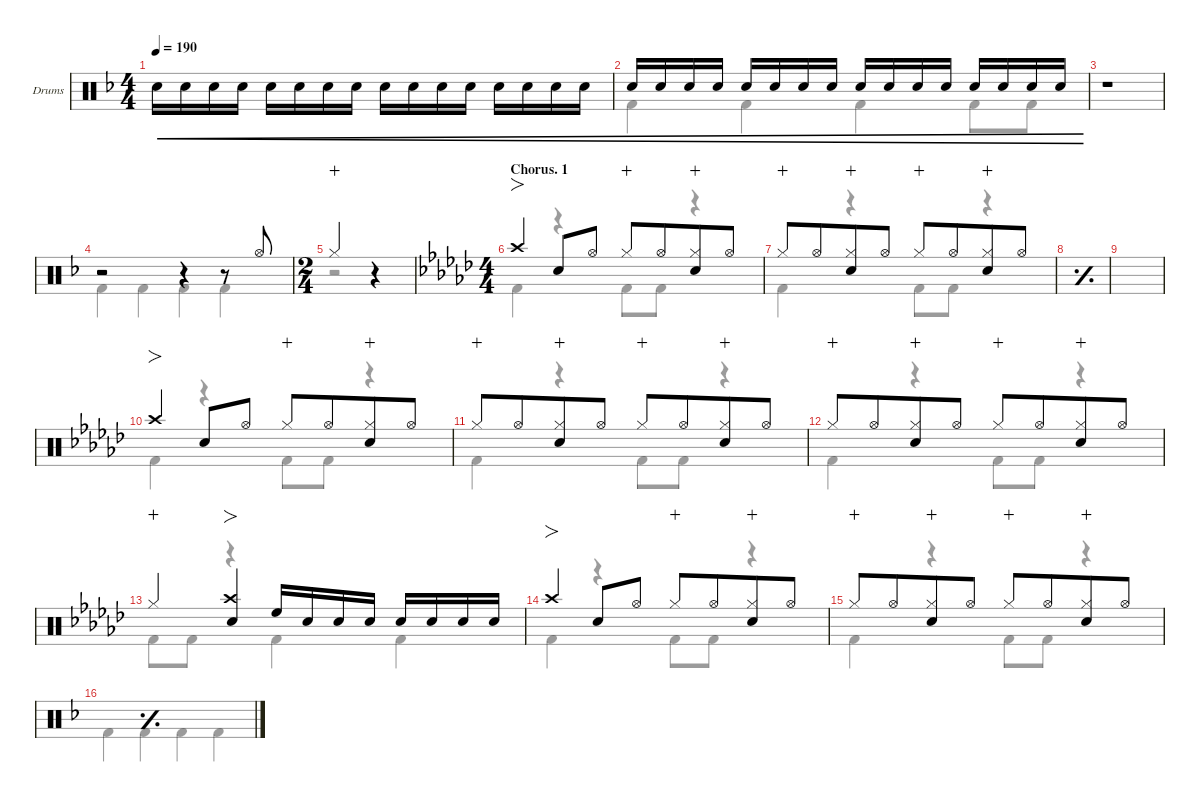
\defaultSystemsLayout 4
\hideDynamics
\bracketExtendMode nobrackets
\firstSystemTrackNameOrientation horizontal
\track ("Drums" "Drums") {defaultSystemsLayout 4 instrument percussion}
\staff {score}
\articulation defaults
\voice
\ts (4 4)
\tempo 190
\clef neutral
\ks f "Snare (hit) 2"{acc forcenatural}.16{cre dy mf} "Snare (hit) 2"{acc forcenatural}.16{cre dy mp} "Snare (hit) 2"{acc forcenatural}.16{cre dy mf} "Snare (hit) 2"{acc forcenatural}.16{cre dy mp beam split} "Snare (hit) 2"{acc forcenatural}.16{cre dy mf} "Snare (hit) 2"{acc forcenatural}.16{cre dy mp} "Snare (hit) 2"{acc forcenatural}.16{cre dy mf} "Snare (hit) 2"{acc forcenatural}.16{cre dy mp} "Snare (hit) 2"{acc forcenatural}.16{cre dy mf} "Snare (hit) 2"{acc forcenatural}.16{cre dy mp} "Snare (hit) 2"{acc forcenatural}.16{cre dy mf} "Snare (hit) 2"{acc forcenatural}.16{cre dy mp beam split} "Snare (hit) 2"{acc forcenatural}.16{cre dy mf} "Snare (hit) 2"{acc forcenatural}.16{cre dy mp} "Snare (hit) 2"{acc forcenatural}.16{cre dy mf} "Snare (hit) 2"{acc forcenatural}.16{cre dy mp}
|
"Snare (hit) 2"{acc forcenatural}.16{cre dy f} "Snare (hit) 2"{acc forcenatural}.16{cre dy mf} "Snare (hit) 2"{acc forcenatural}.16{cre dy f} "Snare (hit) 2"{acc forcenatural}.16{cre dy mf beam split} "Snare (hit) 2"{acc forcenatural}.16{cre dy f} "Snare (hit) 2"{acc forcenatural}.16{cre dy mf} "Snare (hit) 2"{acc forcenatural}.16{cre dy f} "Snare (hit) 2"{acc forcenatural}.16{cre dy mf} "Snare (hit) 2"{acc forcenatural}.16{cre dy f} "Snare (hit) 2"{acc forcenatural}.16{cre dy mf} "Snare (hit) 2"{acc forcenatural}.16{cre dy f} "Snare (hit) 2"{acc forcenatural}.16{cre dy mf beam split} "Snare (hit) 2"{acc forcenatural}.16{cre dy f} "Snare (hit) 2"{acc forcenatural}.16{cre dy mf} "Snare (hit) 2"{acc forcenatural}.16{cre dy f} "Snare (hit) 2"{acc forcenatural}.16{cre dy mf} |
r.1 |
r.2 r.4 r.8 "Hi-Hat (open)"{acc forcenatural}.8{dy f} |
\ts (2 4)
\beaming (8 2 2)
"Hi-Hat (closed)"{acc forcenatural}.4{dy mp wahc} r.4 |
\ts (4 4)
\beaming (8 4 4)
\section ("" "Chorus. 1")
\ks gb "Crash high (hit)"{acc forcenatural}.4{fo dy f} "Snare (hit) 2"{acc forcenatural}.8 "Hi-Hat (open)"{acc forcenatural}.8 "Hi-Hat (closed)"{acc forcenatural}.8{wahc} "Hi-Hat (open)"{acc forcenatural}.8
("Hi-Hat (closed)"{acc forcenatural} "Snare (hit) 2"{acc forcenatural}).8{wahc} "Hi-Hat (open)"{acc forcenatural}.8 |
"Hi-Hat (closed)"{acc forcenatural}.8{wahc} "Hi-Hat (open)"{acc forcenatural}.8 ("Hi-Hat (closed)"{acc forcenatural} "Snare (hit) 2"{acc forcenatural}).8{wahc} "Hi-Hat (open)"{acc forcenatural}.8 "Hi-Hat (closed)"{acc forcenatural}.8{wahc} "Hi-Hat (open)"{acc forcenatural}.8 ("Hi-Hat (closed)"{acc forcenatural} "Snare (hit) 2"{acc forcenatural}).8{wahc} "Hi-Hat (open)"{acc forcenatural}.8 |
\simile simple
|
|
\simile none "Crash high (hit)"{acc forcenatural}.4{fo} "Snare (hit) 2"{acc forcenatural}.8 "Hi-Hat (open)"{acc forcenatural}.8 "Hi-Hat (closed)"{acc forcenatural}.8{wahc} "Hi-Hat (open)"{acc forcenatural}.8
("Hi-Hat (closed)"{acc forcenatural} "Snare (hit) 2"{acc forcenatural}).8{wahc} "Hi-Hat (open)"{acc forcenatural}.8 |
"Hi-Hat (closed)"{acc forcenatural}.8{wahc} "Hi-Hat (open)"{acc forcenatural}.8 ("Hi-Hat (closed)"{acc forcenatural} "Snare (hit) 2"{acc forcenatural}).8{wahc} "Hi-Hat (open)"{acc forcenatural}.8 "Hi-Hat (closed)"{acc forcenatural}.8{wahc} "Hi-Hat (open)"{acc forcenatural}.8 ("Hi-Hat (closed)"{acc forcenatural} "Snare (hit) 2"{acc forcenatural}).8{wahc} "Hi-Hat (open)"{acc forcenatural}.8 |
"Hi-Hat (closed)"{acc forcenatural}.8{wahc} "Hi-Hat (open)"{acc forcenatural}.8 ("Hi-Hat (closed)"{acc forcenatural} "Snare (hit) 2"{acc forcenatural}).8{wahc} "Hi-Hat (open)"{acc forcenatural}.8 "Hi-Hat (closed)"{acc forcenatural}.8{wahc} "Hi-Hat (open)"{acc forcenatural}.8 ("Hi-Hat (closed)"{acc forcenatural} "Snare (hit) 2"{acc forcenatural}).8{wahc} "Hi-Hat (open)"{acc forcenatural}.8 |
"Hi-Hat (closed)"{acc forcenatural}.4{wahc} ("Crash high (hit)"{acc forcenatural} "Snare (hit) 2"{acc forcenatural}).4{fo} "High Floor Tom (hit)"{acc forcenatural}.16 "Snare (hit) 2"{acc forcenatural}.16{dy mf} "Snare (hit) 2"{acc forcenatural}.16{dy f} "Snare (hit) 2"{acc forcenatural}.16{dy mf beam split} "Snare (hit) 2"{acc forcenatural}.16{dy f} "Snare (hit) 2"{acc forcenatural}.16{dy mf} "Snare (hit) 2"{acc forcenatural}.16{dy f} "Snare (hit) 2"{acc forcenatural}.16{dy mf} |
"Crash high (hit)"{acc forcenatural}.4{fo dy f} "Snare (hit) 2"{acc forcenatural}.8 "Hi-Hat (open)"{acc forcenatural}.8 "Hi-Hat (closed)"{acc forcenatural}.8{wahc} "Hi-Hat (open)"{acc forcenatural}.8 ("Hi-Hat (closed)"{acc forcenatural} "Snare (hit) 2"{acc forcenatural}).8{wahc} "Hi-Hat (open)"{acc forcenatural}.8 |
"Hi-Hat (closed)"{acc forcenatural}.8{wahc} "Hi-Hat (open)"{acc forcenatural}.8 ("Hi-Hat (closed)"{acc forcenatural} "Snare (hit) 2"{acc forcenatural}).8{wahc} "Hi-Hat (open)"{acc forcenatural}.8 "Hi-Hat (closed)"{acc forcenatural}.8{wahc} "Hi-Hat (open)"{acc forcenatural}.8 ("Hi-Hat (closed)"{acc forcenatural} "Snare (hit) 2"{acc forcenatural}).8{wahc} "Hi-Hat (open)"{acc forcenatural}.8 |
\simile simple
\voice
\clef neutral
\ottava regular
\simile none
\ks f "Kick (hit) 2"{acc forcenatural}.4{dy f} "Kick (hit) 2"{acc forcenatural}.4 "Kick (hit) 2"{acc forcenatural}.4 "Kick (hit) 2"{acc forcenatural}.4
|
"Kick (hit) 2"{acc forcenatural}.4 "Kick (hit) 2"{acc forcenatural}.4 "Kick (hit) 2"{acc forcenatural}.4 "Kick (hit) 2"{acc forcenatural}.8 "Kick (hit) 2"{acc forcenatural}.8 |
r.1 |
"Kick (hit) 2"{acc forcenatural}.4 "Kick (hit) 2"{acc forcenatural}.4 "Kick (hit) 2"{acc forcenatural}.4 "Kick (hit) 2"{acc forcenatural}.4 |
r.2 |
\ks gb "Kick (hit) 2"{acc forcenatural}.4
r.4 "Kick (hit) 2"{acc forcenatural}.8 "Kick (hit) 2"{acc forcenatural}.8 r.4 |
"Kick (hit) 2"{acc forcenatural}.4 r.4 "Kick (hit) 2"{acc forcenatural}.8 "Kick (hit) 2"{acc forcenatural}.8 r.4 |
\simile simple
|
|
\simile none "Kick (hit) 2"{acc forcenatural}.4
r.4 "Kick (hit) 2"{acc forcenatural}.8 "Kick (hit) 2"{acc forcenatural}.8 r.4 |
"Kick (hit) 2"{acc forcenatural}.4 r.4 "Kick (hit) 2"{acc forcenatural}.8 "Kick (hit) 2"{acc forcenatural}.8 r.4 |
"Kick (hit) 2"{acc forcenatural}.4 r.4 "Kick (hit) 2"{acc forcenatural}.8 "Kick (hit) 2"{acc forcenatural}.8 r.4 |
"Kick (hit) 2"{acc forcenatural}.8 "Kick (hit) 2"{acc forcenatural}.8 r.4 "Kick (hit) 2"{acc forcenatural}.4 "Kick (hit) 2"{acc forcenatural}.4 |
"Kick (hit) 2"{acc forcenatural}.4 r.4 "Kick (hit) 2"{acc forcenatural}.8 "Kick (hit) 2"{acc forcenatural}.8 r.4 |
"Kick (hit) 2"{acc forcenatural}.4 r.4 "Kick (hit) 2"{acc forcenatural}.8 "Kick (hit) 2"{acc forcenatural}.8 r.4 |
\simile simple
